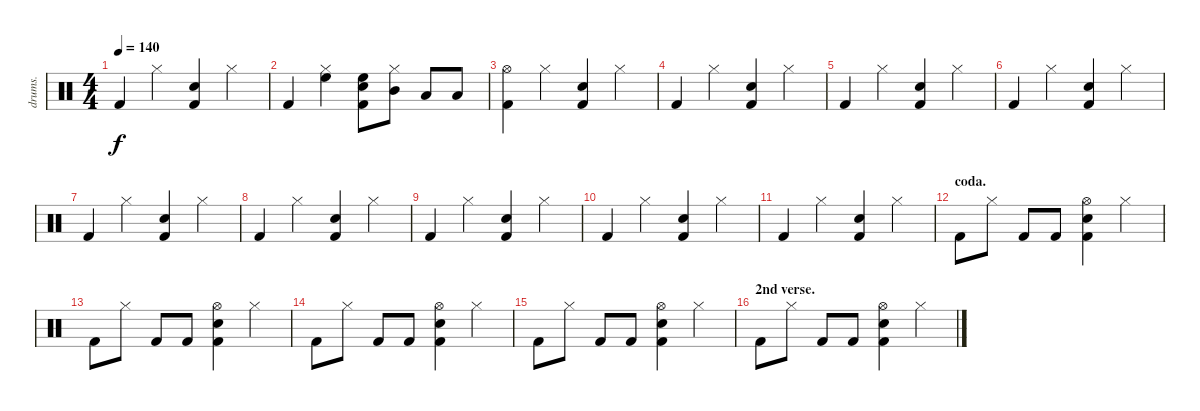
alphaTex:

\track ("drums." "drums.") {instrument percussion}
\staff {score}
\articulation defaults
\ts (4 4)
\tempo 140
\clef neutral
\ks c "Kick (hit) 2".4{dy f} "Hi-Hat (closed)".4
("Electric Snare (hit)" "Kick (hit) 2").4 "Hi-Hat (closed)".4 |
"Kick (hit) 2".4 ("High Floor Tom (hit)" "Hi-Hat (closed)").4 ("High Floor Tom (hit)" "Electric Snare (hit)" "Kick (hit) 2").8 ("Mid Tom (hit)" "Hi-Hat (closed)").8 "Low Tom (hit)".8 "Low Floor Tom (hit)".8 |
("Hi-Hat (open)" "Kick (hit) 2").4 "Hi-Hat (closed)".4 ("Electric Snare (hit)" "Kick (hit) 2").4 "Hi-Hat (closed)".4 |
"Kick (hit) 2".4 "Hi-Hat (closed)".4 ("Electric Snare (hit)" "Kick (hit) 2").4 "Hi-Hat (closed)".4 |
"Kick (hit) 2".4 "Hi-Hat (closed)".4 ("Electric Snare (hit)" "Kick (hit) 2").4 "Hi-Hat (closed)".4 |
"Kick (hit) 2".4 "Hi-Hat (closed)".4 ("Electric Snare (hit)" "Kick (hit) 2").4 "Hi-Hat (closed)".4 |
"Kick (hit) 2".4 "Hi-Hat (closed)".4 ("Electric Snare (hit)" "Kick (hit) 2").4 "Hi-Hat (closed)".4 |
"Kick (hit) 2".4 "Hi-Hat (closed)".4 ("Electric Snare (hit)" "Kick (hit) 2").4 "Hi-Hat (closed)".4 |
"Kick (hit) 2".4 "Hi-Hat (closed)".4 ("Electric Snare (hit)" "Kick (hit) 2").4 "Hi-Hat (closed)".4 |
"Kick (hit) 2".4 "Hi-Hat (closed)".4 ("Electric Snare (hit)" "Kick (hit) 2").4 "Hi-Hat (closed)".4 |
"Kick (hit) 2".4 "Hi-Hat (closed)".4 ("Electric Snare (hit)" "Kick (hit) 2").4 "Hi-Hat (closed)".4 |
\section ("" "coda.")
"Kick (hit) 2".8 "Hi-Hat (closed)".8 "Kick (hit) 2".8 "Kick (hit) 2".8 ("Hi-Hat (open)" "Electric Snare (hit)" "Kick (hit) 2").4 "Hi-Hat (closed)".4 |
"Kick (hit) 2".8 "Hi-Hat (closed)".8 "Kick (hit) 2".8 "Kick (hit) 2".8 ("Hi-Hat (open)" "Electric Snare (hit)" "Kick (hit) 2").4 "Hi-Hat (closed)".4 |
"Kick (hit) 2".8 "Hi-Hat (closed)".8 "Kick (hit) 2".8 "Kick (hit) 2".8 ("Hi-Hat (open)" "Electric Snare (hit)" "Kick (hit) 2").4 "Hi-Hat (closed)".4 |
"Kick (hit) 2".8 "Hi-Hat (closed)".8 "Kick (hit) 2".8 "Kick (hit) 2".8 ("Hi-Hat (open)" "Electric Snare (hit)" "Kick (hit) 2").4 "Hi-Hat (closed)".4 |
\section ("" "2nd verse.")
"Kick (hit) 2".8 "Hi-Hat (closed)".8 "Kick (hit) 2".8 "Kick (hit) 2".8 ("Hi-Hat (open)" "Electric Snare (hit)" "Kick (hit) 2").4 "Hi-Hat (closed)".4
